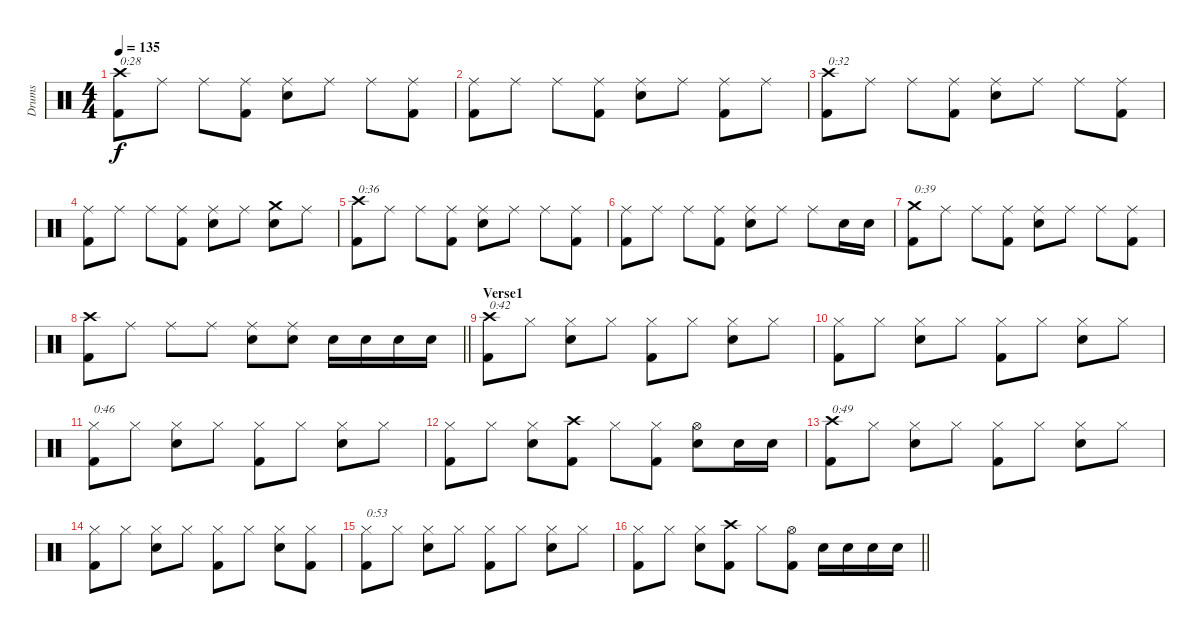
\track ("Drums" "Drums") {instrument percussion}
\staff {score}
\articulation defaults
\ts (4 4)
\tempo 135
\clef neutral
\ks c
("Crash high (hit)" "Kick (hit) 2").8{txt "0:28" dy f} "Ride (middle)".8 "Ride (middle)".8 ("Ride (middle)" "Kick (hit) 2").8 ("Ride (middle)" "Electric Snare (hit)").8 "Ride (middle)".8 "Ride (middle)".8 ("Ride (middle)" "Kick (hit) 2").8 |
("Ride (middle)" "Kick (hit) 2").8 "Ride (middle)".8 "Ride (middle)".8 ("Ride (middle)" "Kick (hit) 2").8 ("Ride (middle)" "Electric Snare (hit)").8 "Ride (middle)".8 ("Ride (middle)" "Kick (hit) 2").8 "Ride (middle)".8 |
("Crash high (hit)" "Kick (hit) 2").8{txt "0:32"} "Ride (middle)".8 "Ride (middle)".8 ("Ride (middle)" "Kick (hit) 2").8 ("Ride (middle)" "Electric Snare (hit)").8 "Ride (middle)".8 "Ride (middle)".8 ("Ride (middle)" "Kick (hit) 2").8 |
("Ride (middle)" "Kick (hit) 2").8 "Ride (middle)".8 "Ride (middle)".8 ("Ride (middle)" "Kick (hit) 2").8 ("Ride (middle)" "Electric Snare (hit)").8 "Ride (middle)".8 ("Crash medium (hit)" "Electric Snare (hit)").8 "Ride (middle)".8 |
("Crash high (hit)" "Kick (hit) 2").8{txt "0:36"} "Ride (middle)".8 "Ride (middle)".8 ("Ride (middle)" "Kick (hit) 2").8 ("Ride (middle)" "Electric Snare (hit)").8 "Ride (middle)".8 "Ride (middle)".8 ("Ride (middle)" "Kick (hit) 2").8 |
("Ride (middle)" "Kick (hit) 2").8 "Ride (middle)".8 "Ride (middle)".8 ("Ride (middle)" "Kick (hit) 2").8 ("Ride (middle)" "Electric Snare (hit)").8 "Ride (middle)".8 "Ride (middle)".8 "Electric Snare (hit)".16 "Electric Snare (hit)".16 |
("Crash medium (hit)" "Kick (hit) 2").8{txt "0:39"} "Ride (middle)".8 "Ride (middle)".8 ("Ride (middle)" "Kick (hit) 2").8 ("Ride (middle)" "Electric Snare (hit)").8 "Ride (middle)".8 "Ride (middle)".8 ("Ride (middle)" "Kick (hit) 2").8 |
\barLineRight lightlight
("Crash high (hit)" "Kick (hit) 2").8 "Ride (middle)".8 "Ride (middle)".8 "Ride (middle)".8 ("Ride (middle)" "Electric Snare (hit)").8 ("Ride (middle)" "Electric Snare (hit)").8 "Electric Snare (hit)".16 "Electric Snare (hit)".16 "Electric Snare (hit)".16 "Electric Snare (hit)".16 |
\section ("" "Verse1")
("Crash high (hit)" "Kick (hit) 2").8{txt "0:42"} "Hi-Hat (closed)".8 ("Hi-Hat (closed)" "Electric Snare (hit)").8 "Hi-Hat (closed)".8 ("Hi-Hat (closed)" "Kick (hit) 2").8 "Hi-Hat (closed)".8 ("Hi-Hat (closed)" "Electric Snare (hit)").8 "Hi-Hat (closed)".8 |
("Hi-Hat (closed)" "Kick (hit) 2").8 "Hi-Hat (closed)".8 ("Hi-Hat (closed)" "Electric Snare (hit)").8 "Hi-Hat (closed)".8 ("Hi-Hat (closed)" "Kick (hit) 2").8 "Hi-Hat (closed)".8 ("Hi-Hat (closed)" "Electric Snare (hit)").8 "Hi-Hat (closed)".8 |
("Hi-Hat (closed)" "Kick (hit) 2").8{txt "0:46"} "Hi-Hat (closed)".8 ("Hi-Hat (closed)" "Electric Snare (hit)").8 "Hi-Hat (closed)".8 ("Hi-Hat (closed)" "Kick (hit) 2").8 "Hi-Hat (closed)".8 ("Hi-Hat (closed)" "Electric Snare (hit)").8 "Hi-Hat (closed)".8 |
("Hi-Hat (closed)" "Kick (hit) 2").8 "Hi-Hat (closed)".8 ("Hi-Hat (closed)" "Electric Snare (hit)").8 ("Crash high (hit)" "Kick (hit) 2").8 "Hi-Hat (closed)".8 ("Hi-Hat (closed)" "Kick (hit) 2").8 ("Hi-Hat (open)" "Electric Snare (hit)").8 "Electric Snare (hit)".16 "Electric Snare (hit)".16 |
("Crash high (hit)" "Kick (hit) 2").8{txt "0:49"} "Hi-Hat (closed)".8 ("Hi-Hat (closed)" "Electric Snare (hit)").8 "Hi-Hat (closed)".8 ("Hi-Hat (closed)" "Kick (hit) 2").8 "Hi-Hat (closed)".8 ("Hi-Hat (closed)" "Electric Snare (hit)").8 "Hi-Hat (closed)".8 |
("Hi-Hat (closed)" "Kick (hit) 2").8 "Hi-Hat (closed)".8 ("Hi-Hat (closed)" "Electric Snare (hit)").8 "Hi-Hat (closed)".8 ("Hi-Hat (closed)" "Kick (hit) 2").8 "Hi-Hat (closed)".8 ("Hi-Hat (closed)" "Electric Snare (hit)").8 ("Hi-Hat (closed)" "Kick (hit) 2").8 |
("Hi-Hat (closed)" "Kick (hit) 2").8{txt "0:53"} "Hi-Hat (closed)".8 ("Hi-Hat (closed)" "Electric Snare (hit)").8 "Hi-Hat (closed)".8 ("Hi-Hat (closed)" "Kick (hit) 2").8 "Hi-Hat (closed)".8 ("Hi-Hat (closed)" "Electric Snare (hit)").8 "Hi-Hat (closed)".8 |
\barLineRight lightlight
("Hi-Hat (closed)" "Kick (hit) 2").8 "Hi-Hat (closed)".8 ("Hi-Hat (closed)" "Electric Snare (hit)").8 ("Crash high (hit)" "Kick (hit) 2").8 "Hi-Hat (closed)".8 ("Hi-Hat (open)" "Kick (hit) 2").8 "Electric Snare (hit)".16 "Electric Snare (hit)".16 "Electric Snare (hit)".16 "Electric Snare (hit)".16
